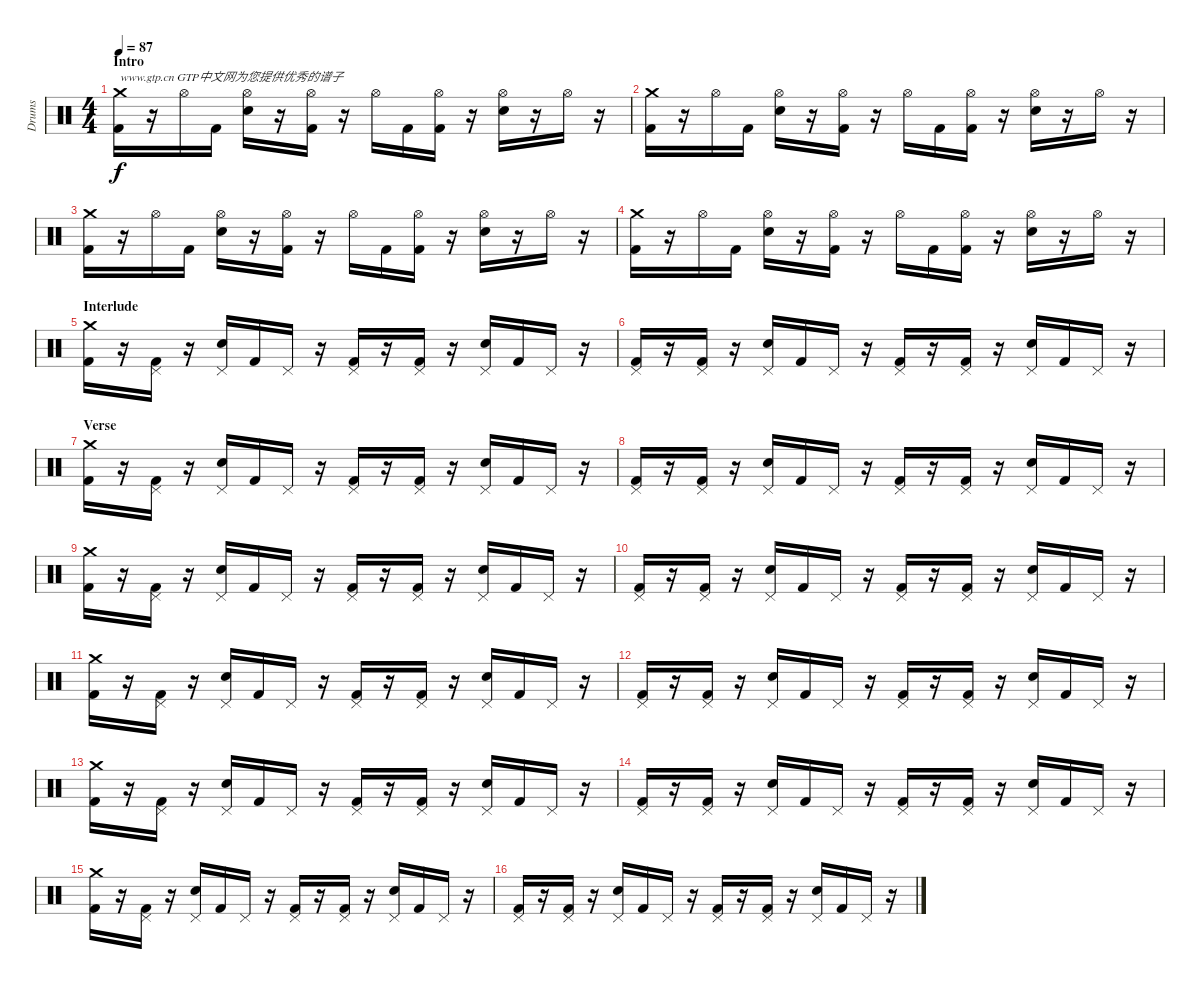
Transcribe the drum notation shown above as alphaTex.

\track ("Drums" "Drums") {instrument percussion}
\staff {score}
\articulation defaults
\ts (4 4)
\section ("" "Intro")
\tempo 87
\clef neutral
\ks c
("Crash medium (hit)" "Kick (hit) 2").16{txt "www.gtp.cn GTP中文网为您提供优秀的谱子" dy f} r.16 "Hi-Hat (open)".16 "Kick (hit) 2".16 ("Hi-Hat (open)" "Electric Snare (hit)").16 r.16 ("Hi-Hat (open)" "Kick (hit) 2").16 r.16 "Hi-Hat (open)".16 "Kick (hit) 2".16 ("Hi-Hat (open)" "Kick (hit) 2").16 r.16 ("Hi-Hat (open)" "Electric Snare (hit)").16 r.16 "Hi-Hat (open)".16 r.16 |
("Crash medium (hit)" "Kick (hit) 2").16 r.16 "Hi-Hat (open)".16 "Kick (hit) 2".16 ("Hi-Hat (open)" "Electric Snare (hit)").16 r.16 ("Hi-Hat (open)" "Kick (hit) 2").16 r.16 "Hi-Hat (open)".16 "Kick (hit) 2".16 ("Hi-Hat (open)" "Kick (hit) 2").16 r.16 ("Hi-Hat (open)" "Electric Snare (hit)").16 r.16 "Hi-Hat (open)".16 r.16 |
("Crash medium (hit)" "Kick (hit) 2").16 r.16 "Hi-Hat (open)".16 "Kick (hit) 2".16 ("Hi-Hat (open)" "Electric Snare (hit)").16 r.16 ("Hi-Hat (open)" "Kick (hit) 2").16 r.16 "Hi-Hat (open)".16 "Kick (hit) 2".16 ("Hi-Hat (open)" "Kick (hit) 2").16 r.16 ("Hi-Hat (open)" "Electric Snare (hit)").16 r.16 "Hi-Hat (open)".16 r.16 |
("Crash medium (hit)" "Kick (hit) 2").16 r.16 "Hi-Hat (open)".16 "Kick (hit) 2".16 ("Hi-Hat (open)" "Electric Snare (hit)").16 r.16 ("Hi-Hat (open)" "Kick (hit) 2").16 r.16 "Hi-Hat (open)".16 "Kick (hit) 2".16 ("Hi-Hat (open)" "Kick (hit) 2").16 r.16 ("Hi-Hat (open)" "Electric Snare (hit)").16 r.16 "Hi-Hat (open)".16 r.16 |
\section ("" "Interlude")
("Crash medium (hit)" "Kick (hit) 2").16 r.16 ("Pedal Hi-Hat (hit)" "Kick (hit) 2").16 r.16 ("Pedal Hi-Hat (hit)" "Electric Snare (hit)").16 "Kick (hit) 2".16 "Pedal Hi-Hat (hit)".16 r.16 ("Pedal Hi-Hat (hit)" "Kick (hit) 2").16 r.16 ("Pedal Hi-Hat (hit)" "Kick (hit) 2").16 r.16 ("Pedal Hi-Hat (hit)" "Electric Snare (hit)").16 "Kick (hit) 2".16 "Pedal Hi-Hat (hit)".16 r.16 |
("Pedal Hi-Hat (hit)" "Kick (hit) 2").16 r.16 ("Pedal Hi-Hat (hit)" "Kick (hit) 2").16 r.16 ("Pedal Hi-Hat (hit)" "Electric Snare (hit)").16 "Kick (hit) 2".16 "Pedal Hi-Hat (hit)".16 r.16 ("Pedal Hi-Hat (hit)" "Kick (hit) 2").16 r.16 ("Pedal Hi-Hat (hit)" "Kick (hit) 2").16 r.16 ("Pedal Hi-Hat (hit)" "Electric Snare (hit)").16 "Kick (hit) 2".16 "Pedal Hi-Hat (hit)".16 r.16 |
\section ("" "Verse")
("Crash medium (hit)" "Kick (hit) 2").16 r.16 ("Pedal Hi-Hat (hit)" "Kick (hit) 2").16 r.16 ("Pedal Hi-Hat (hit)" "Electric Snare (hit)").16 "Kick (hit) 2".16 "Pedal Hi-Hat (hit)".16 r.16 ("Pedal Hi-Hat (hit)" "Kick (hit) 2").16 r.16 ("Pedal Hi-Hat (hit)" "Kick (hit) 2").16 r.16 ("Pedal Hi-Hat (hit)" "Electric Snare (hit)").16 "Kick (hit) 2".16 "Pedal Hi-Hat (hit)".16 r.16 |
("Pedal Hi-Hat (hit)" "Kick (hit) 2").16 r.16 ("Pedal Hi-Hat (hit)" "Kick (hit) 2").16 r.16 ("Pedal Hi-Hat (hit)" "Electric Snare (hit)").16 "Kick (hit) 2".16 "Pedal Hi-Hat (hit)".16 r.16 ("Pedal Hi-Hat (hit)" "Kick (hit) 2").16 r.16 ("Pedal Hi-Hat (hit)" "Kick (hit) 2").16 r.16 ("Pedal Hi-Hat (hit)" "Electric Snare (hit)").16 "Kick (hit) 2".16 "Pedal Hi-Hat (hit)".16 r.16 |
("Crash medium (hit)" "Kick (hit) 2").16 r.16 ("Pedal Hi-Hat (hit)" "Kick (hit) 2").16 r.16 ("Pedal Hi-Hat (hit)" "Electric Snare (hit)").16 "Kick (hit) 2".16 "Pedal Hi-Hat (hit)".16 r.16 ("Pedal Hi-Hat (hit)" "Kick (hit) 2").16 r.16 ("Pedal Hi-Hat (hit)" "Kick (hit) 2").16 r.16 ("Pedal Hi-Hat (hit)" "Electric Snare (hit)").16 "Kick (hit) 2".16 "Pedal Hi-Hat (hit)".16 r.16 |
("Pedal Hi-Hat (hit)" "Kick (hit) 2").16 r.16 ("Pedal Hi-Hat (hit)" "Kick (hit) 2").16 r.16 ("Pedal Hi-Hat (hit)" "Electric Snare (hit)").16 "Kick (hit) 2".16 "Pedal Hi-Hat (hit)".16 r.16 ("Pedal Hi-Hat (hit)" "Kick (hit) 2").16 r.16 ("Pedal Hi-Hat (hit)" "Kick (hit) 2").16 r.16 ("Pedal Hi-Hat (hit)" "Electric Snare (hit)").16 "Kick (hit) 2".16 "Pedal Hi-Hat (hit)".16 r.16 |
("Crash medium (hit)" "Kick (hit) 2").16 r.16 ("Pedal Hi-Hat (hit)" "Kick (hit) 2").16 r.16 ("Pedal Hi-Hat (hit)" "Electric Snare (hit)").16 "Kick (hit) 2".16 "Pedal Hi-Hat (hit)".16 r.16 ("Pedal Hi-Hat (hit)" "Kick (hit) 2").16 r.16 ("Pedal Hi-Hat (hit)" "Kick (hit) 2").16 r.16 ("Pedal Hi-Hat (hit)" "Electric Snare (hit)").16 "Kick (hit) 2".16 "Pedal Hi-Hat (hit)".16 r.16 |
("Pedal Hi-Hat (hit)" "Kick (hit) 2").16 r.16 ("Pedal Hi-Hat (hit)" "Kick (hit) 2").16 r.16 ("Pedal Hi-Hat (hit)" "Electric Snare (hit)").16 "Kick (hit) 2".16 "Pedal Hi-Hat (hit)".16 r.16 ("Pedal Hi-Hat (hit)" "Kick (hit) 2").16 r.16 ("Pedal Hi-Hat (hit)" "Kick (hit) 2").16 r.16 ("Pedal Hi-Hat (hit)" "Electric Snare (hit)").16 "Kick (hit) 2".16 "Pedal Hi-Hat (hit)".16 r.16 |
("Crash medium (hit)" "Kick (hit) 2").16 r.16 ("Pedal Hi-Hat (hit)" "Kick (hit) 2").16 r.16 ("Pedal Hi-Hat (hit)" "Electric Snare (hit)").16 "Kick (hit) 2".16 "Pedal Hi-Hat (hit)".16 r.16 ("Pedal Hi-Hat (hit)" "Kick (hit) 2").16 r.16 ("Pedal Hi-Hat (hit)" "Kick (hit) 2").16 r.16 ("Pedal Hi-Hat (hit)" "Electric Snare (hit)").16 "Kick (hit) 2".16 "Pedal Hi-Hat (hit)".16 r.16 |
("Pedal Hi-Hat (hit)" "Kick (hit) 2").16 r.16 ("Pedal Hi-Hat (hit)" "Kick (hit) 2").16 r.16 ("Pedal Hi-Hat (hit)" "Electric Snare (hit)").16 "Kick (hit) 2".16 "Pedal Hi-Hat (hit)".16 r.16 ("Pedal Hi-Hat (hit)" "Kick (hit) 2").16 r.16 ("Pedal Hi-Hat (hit)" "Kick (hit) 2").16 r.16 ("Pedal Hi-Hat (hit)" "Electric Snare (hit)").16 "Kick (hit) 2".16 "Pedal Hi-Hat (hit)".16 r.16 |
("Crash medium (hit)" "Kick (hit) 2").16 r.16 ("Pedal Hi-Hat (hit)" "Kick (hit) 2").16 r.16 ("Pedal Hi-Hat (hit)" "Electric Snare (hit)").16 "Kick (hit) 2".16 "Pedal Hi-Hat (hit)".16 r.16 ("Pedal Hi-Hat (hit)" "Kick (hit) 2").16 r.16 ("Pedal Hi-Hat (hit)" "Kick (hit) 2").16 r.16 ("Pedal Hi-Hat (hit)" "Electric Snare (hit)").16 "Kick (hit) 2".16 "Pedal Hi-Hat (hit)".16 r.16 |
("Pedal Hi-Hat (hit)" "Kick (hit) 2").16 r.16 ("Pedal Hi-Hat (hit)" "Kick (hit) 2").16 r.16 ("Pedal Hi-Hat (hit)" "Electric Snare (hit)").16 "Kick (hit) 2".16 "Pedal Hi-Hat (hit)".16 r.16 ("Pedal Hi-Hat (hit)" "Kick (hit) 2").16 r.16 ("Pedal Hi-Hat (hit)" "Kick (hit) 2").16 r.16 ("Pedal Hi-Hat (hit)" "Electric Snare (hit)").16 "Kick (hit) 2".16 "Pedal Hi-Hat (hit)".16 r.16
